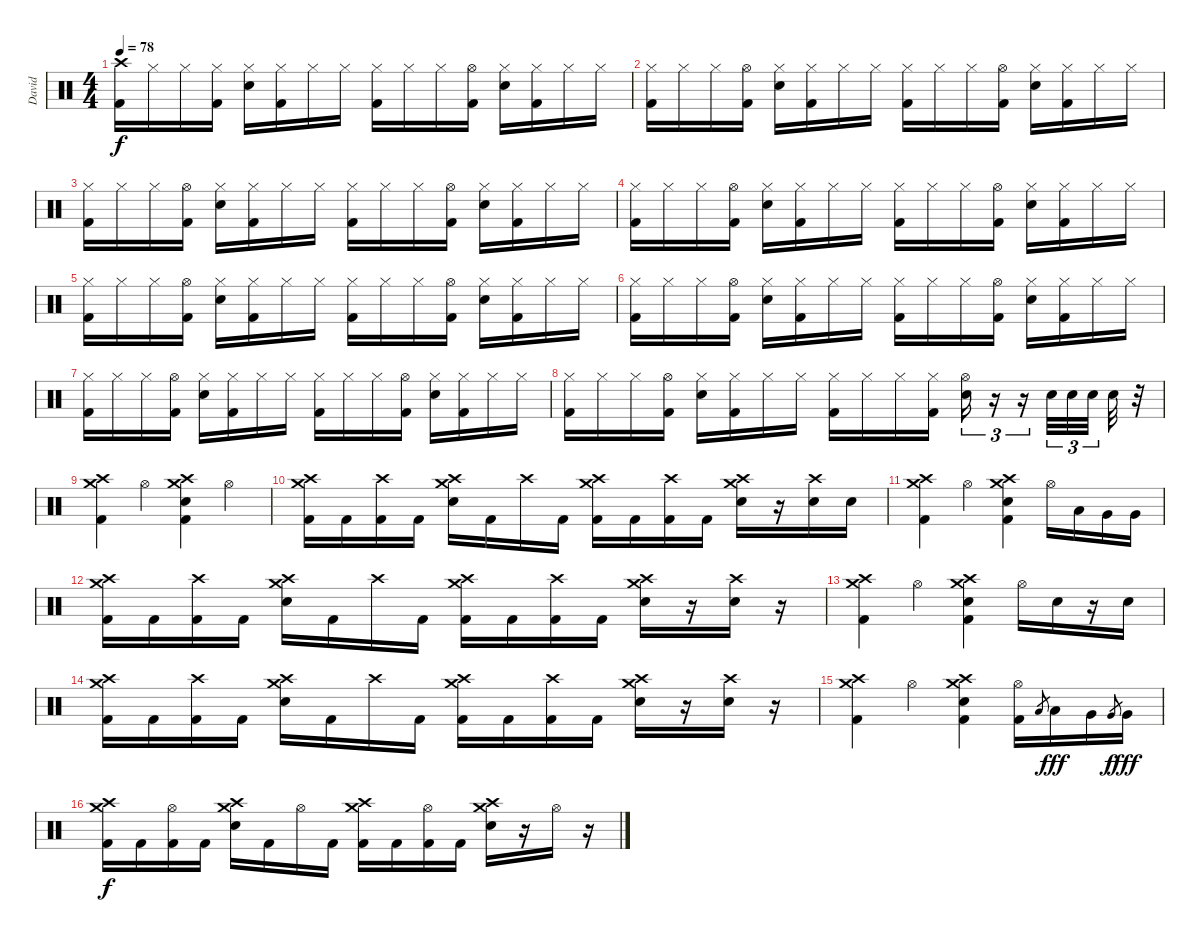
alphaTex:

\track ("David" "David") {instrument percussion}
\staff {score}
\articulation defaults
\ts (4 4)
\tempo 78
\clef neutral
\ks c
("Crash high (hit)" "Kick (hit) 2").16{dy f} "Hi-Hat (closed)".16 "Hi-Hat (closed)".16 ("Hi-Hat (closed)" "Kick (hit) 2").16 ("Hi-Hat (closed)" "Snare (hit) 2").16 ("Hi-Hat (closed)" "Kick (hit) 2").16 "Hi-Hat (closed)".16 "Hi-Hat (closed)".16 ("Hi-Hat (closed)" "Kick (hit) 2").16 "Hi-Hat (closed)".16 "Hi-Hat (closed)".16 ("Hi-Hat (open)" "Kick (hit) 2").16 ("Hi-Hat (closed)" "Snare (hit) 2").16 ("Hi-Hat (closed)" "Kick (hit) 2").16 "Hi-Hat (closed)".16 "Hi-Hat (closed)".16 |
("Hi-Hat (closed)" "Kick (hit) 2").16 "Hi-Hat (closed)".16 "Hi-Hat (closed)".16 ("Hi-Hat (open)" "Kick (hit) 2").16 ("Hi-Hat (closed)" "Snare (hit) 2").16 ("Hi-Hat (closed)" "Kick (hit) 2").16 "Hi-Hat (closed)".16 "Hi-Hat (closed)".16 ("Hi-Hat (closed)" "Kick (hit) 2").16 "Hi-Hat (closed)".16 "Hi-Hat (closed)".16 ("Hi-Hat (open)" "Kick (hit) 2").16 ("Hi-Hat (closed)" "Snare (hit) 2").16 ("Hi-Hat (closed)" "Kick (hit) 2").16 "Hi-Hat (closed)".16 "Hi-Hat (closed)".16 |
("Hi-Hat (closed)" "Kick (hit) 2").16 "Hi-Hat (closed)".16 "Hi-Hat (closed)".16 ("Hi-Hat (open)" "Kick (hit) 2").16 ("Hi-Hat (closed)" "Snare (hit) 2").16 ("Hi-Hat (closed)" "Kick (hit) 2").16 "Hi-Hat (closed)".16 "Hi-Hat (closed)".16 ("Hi-Hat (closed)" "Kick (hit) 2").16 "Hi-Hat (closed)".16 "Hi-Hat (closed)".16 ("Hi-Hat (open)" "Kick (hit) 2").16 ("Hi-Hat (closed)" "Snare (hit) 2").16 ("Hi-Hat (closed)" "Kick (hit) 2").16 "Hi-Hat (closed)".16 "Hi-Hat (closed)".16 |
("Hi-Hat (closed)" "Kick (hit) 2").16 "Hi-Hat (closed)".16 "Hi-Hat (closed)".16 ("Hi-Hat (open)" "Kick (hit) 2").16 ("Hi-Hat (closed)" "Snare (hit) 2").16 ("Hi-Hat (closed)" "Kick (hit) 2").16 "Hi-Hat (closed)".16 "Hi-Hat (closed)".16 ("Hi-Hat (closed)" "Kick (hit) 2").16 "Hi-Hat (closed)".16 "Hi-Hat (closed)".16 ("Hi-Hat (open)" "Kick (hit) 2").16 ("Hi-Hat (closed)" "Snare (hit) 2").16 ("Hi-Hat (closed)" "Kick (hit) 2").16 "Hi-Hat (closed)".16 "Hi-Hat (closed)".16 |
("Hi-Hat (closed)" "Kick (hit) 2").16 "Hi-Hat (closed)".16 "Hi-Hat (closed)".16 ("Hi-Hat (open)" "Kick (hit) 2").16 ("Hi-Hat (closed)" "Snare (hit) 2").16 ("Hi-Hat (closed)" "Kick (hit) 2").16 "Hi-Hat (closed)".16 "Hi-Hat (closed)".16 ("Hi-Hat (closed)" "Kick (hit) 2").16 "Hi-Hat (closed)".16 "Hi-Hat (closed)".16 ("Hi-Hat (open)" "Kick (hit) 2").16 ("Hi-Hat (closed)" "Snare (hit) 2").16 ("Hi-Hat (closed)" "Kick (hit) 2").16 "Hi-Hat (closed)".16 "Hi-Hat (closed)".16 |
("Hi-Hat (closed)" "Kick (hit) 2").16 "Hi-Hat (closed)".16 "Hi-Hat (closed)".16 ("Hi-Hat (open)" "Kick (hit) 2").16 ("Hi-Hat (closed)" "Snare (hit) 2").16 ("Hi-Hat (closed)" "Kick (hit) 2").16 "Hi-Hat (closed)".16 "Hi-Hat (closed)".16 ("Hi-Hat (closed)" "Kick (hit) 2").16 "Hi-Hat (closed)".16 "Hi-Hat (closed)".16 ("Hi-Hat (open)" "Kick (hit) 2").16 ("Hi-Hat (closed)" "Snare (hit) 2").16 ("Hi-Hat (closed)" "Kick (hit) 2").16 "Hi-Hat (closed)".16 "Hi-Hat (closed)".16 |
("Hi-Hat (closed)" "Kick (hit) 2").16 "Hi-Hat (closed)".16 "Hi-Hat (closed)".16 ("Hi-Hat (open)" "Kick (hit) 2").16 ("Hi-Hat (closed)" "Snare (hit) 2").16 ("Hi-Hat (closed)" "Kick (hit) 2").16 "Hi-Hat (closed)".16 "Hi-Hat (closed)".16 ("Hi-Hat (closed)" "Kick (hit) 2").16 "Hi-Hat (closed)".16 "Hi-Hat (closed)".16 ("Hi-Hat (open)" "Kick (hit) 2").16 ("Hi-Hat (closed)" "Snare (hit) 2").16 ("Hi-Hat (closed)" "Kick (hit) 2").16 "Hi-Hat (closed)".16 "Hi-Hat (closed)".16 |
("Hi-Hat (closed)" "Kick (hit) 2").16 "Hi-Hat (closed)".16 "Hi-Hat (closed)".16 ("Hi-Hat (open)" "Kick (hit) 2").16 ("Hi-Hat (closed)" "Snare (hit) 2").16 ("Hi-Hat (closed)" "Kick (hit) 2").16 "Hi-Hat (closed)".16 "Hi-Hat (closed)".16 ("Hi-Hat (closed)" "Kick (hit) 2").16 "Hi-Hat (closed)".16 "Hi-Hat (closed)".16 ("Hi-Hat (closed)" "Kick (hit) 2").16 ("Hi-Hat (open)" "Snare (hit) 2").16{tu (3 2)} r.16{tu (3 2)} r.16{tu (3 2)} "Snare (hit) 2".32{tu (3 2)} "Snare (hit) 2".32{tu (3 2)} "Snare (hit) 2".32{tu (3 2)} "Snare (hit) 2".32 r.32 |
("Crash high (hit)" "Crash medium (hit)" "Kick (hit) 2").4 "Hi-Hat (open)".4 ("Crash high (hit)" "Crash medium (hit)" "Snare (hit) 2" "Kick (hit) 2").4 "Hi-Hat (open)".4 |
("Crash high (hit)" "Crash medium (hit)" "Kick (hit) 2").16 "Kick (hit) 2".16 ("Crash high (hit)" "Kick (hit) 2").16 "Kick (hit) 2".16 ("Crash high (hit)" "Crash medium (hit)" "Snare (hit) 2").16 "Kick (hit) 2".16 "Crash high (hit)".16 "Kick (hit) 2".16 ("Crash high (hit)" "Crash medium (hit)" "Kick (hit) 2").16 "Kick (hit) 2".16 ("Crash high (hit)" "Kick (hit) 2").16 "Kick (hit) 2".16 ("Crash high (hit)" "Crash medium (hit)" "Snare (hit) 2").16 r.16 ("Crash high (hit)" "Snare (hit) 2").16 "Snare (hit) 2".16 |
("Crash high (hit)" "Crash medium (hit)" "Kick (hit) 2").4 "Hi-Hat (open)".4 ("Crash high (hit)" "Crash medium (hit)" "Snare (hit) 2" "Kick (hit) 2").4 "Hi-Hat (open)".16 "Low Tom (hit)".16 "Very Low Tom (hit)".16 "Very Low Tom (hit)".16 |
("Crash high (hit)" "Crash medium (hit)" "Kick (hit) 2").16 "Kick (hit) 2".16 ("Crash high (hit)" "Kick (hit) 2").16 "Kick (hit) 2".16 ("Crash high (hit)" "Crash medium (hit)" "Snare (hit) 2").16 "Kick (hit) 2".16 "Crash high (hit)".16 "Kick (hit) 2".16 ("Crash high (hit)" "Crash medium (hit)" "Kick (hit) 2").16 "Kick (hit) 2".16 ("Crash high (hit)" "Kick (hit) 2").16 "Kick (hit) 2".16 ("Crash high (hit)" "Crash medium (hit)" "Snare (hit) 2").16 r.16 ("Crash high (hit)" "Snare (hit) 2").16 r.16 |
("Crash high (hit)" "Crash medium (hit)" "Kick (hit) 2").4 "Hi-Hat (open)".4 ("Crash high (hit)" "Crash medium (hit)" "Snare (hit) 2" "Kick (hit) 2").4 "Hi-Hat (open)".16 "Snare (hit) 2".16 r.16 "Snare (hit) 2".16 |
("Crash high (hit)" "Crash medium (hit)" "Kick (hit) 2").16 "Kick (hit) 2".16 ("Crash high (hit)" "Kick (hit) 2").16 "Kick (hit) 2".16 ("Crash high (hit)" "Crash medium (hit)" "Snare (hit) 2").16 "Kick (hit) 2".16 "Crash high (hit)".16 "Kick (hit) 2".16 ("Crash high (hit)" "Crash medium (hit)" "Kick (hit) 2").16 "Kick (hit) 2".16 ("Crash high (hit)" "Kick (hit) 2").16 "Kick (hit) 2".16 ("Crash high (hit)" "Crash medium (hit)" "Snare (hit) 2").16 r.16 ("Crash high (hit)" "Snare (hit) 2").16 r.16 |
("Crash high (hit)" "Crash medium (hit)" "Kick (hit) 2").4 "Hi-Hat (open)".4 ("Crash high (hit)" "Crash medium (hit)" "Snare (hit) 2" "Kick (hit) 2").4 ("Hi-Hat (open)" "Kick (hit) 2").16 "Low Tom (hit)".8{gr} "Low Tom (hit)".16{dy fff} "Very Low Tom (hit)".16 "Very Low Tom (hit)".8{gr dy f} "Very Low Tom (hit)".16{dy fff} |
("Crash high (hit)" "Crash medium (hit)" "Kick (hit) 2").16{dy f} "Kick (hit) 2".16 ("Hi-Hat (open)" "Kick (hit) 2").16 "Kick (hit) 2".16 ("Crash high (hit)" "Crash medium (hit)" "Snare (hit) 2").16 "Kick (hit) 2".16 "Hi-Hat (open)".16 "Kick (hit) 2".16 ("Crash high (hit)" "Crash medium (hit)" "Kick (hit) 2").16 "Kick (hit) 2".16 ("Hi-Hat (open)" "Kick (hit) 2").16 "Kick (hit) 2".16 ("Crash high (hit)" "Crash medium (hit)" "Snare (hit) 2").16 r.16 "Hi-Hat (open)".16 r.16
